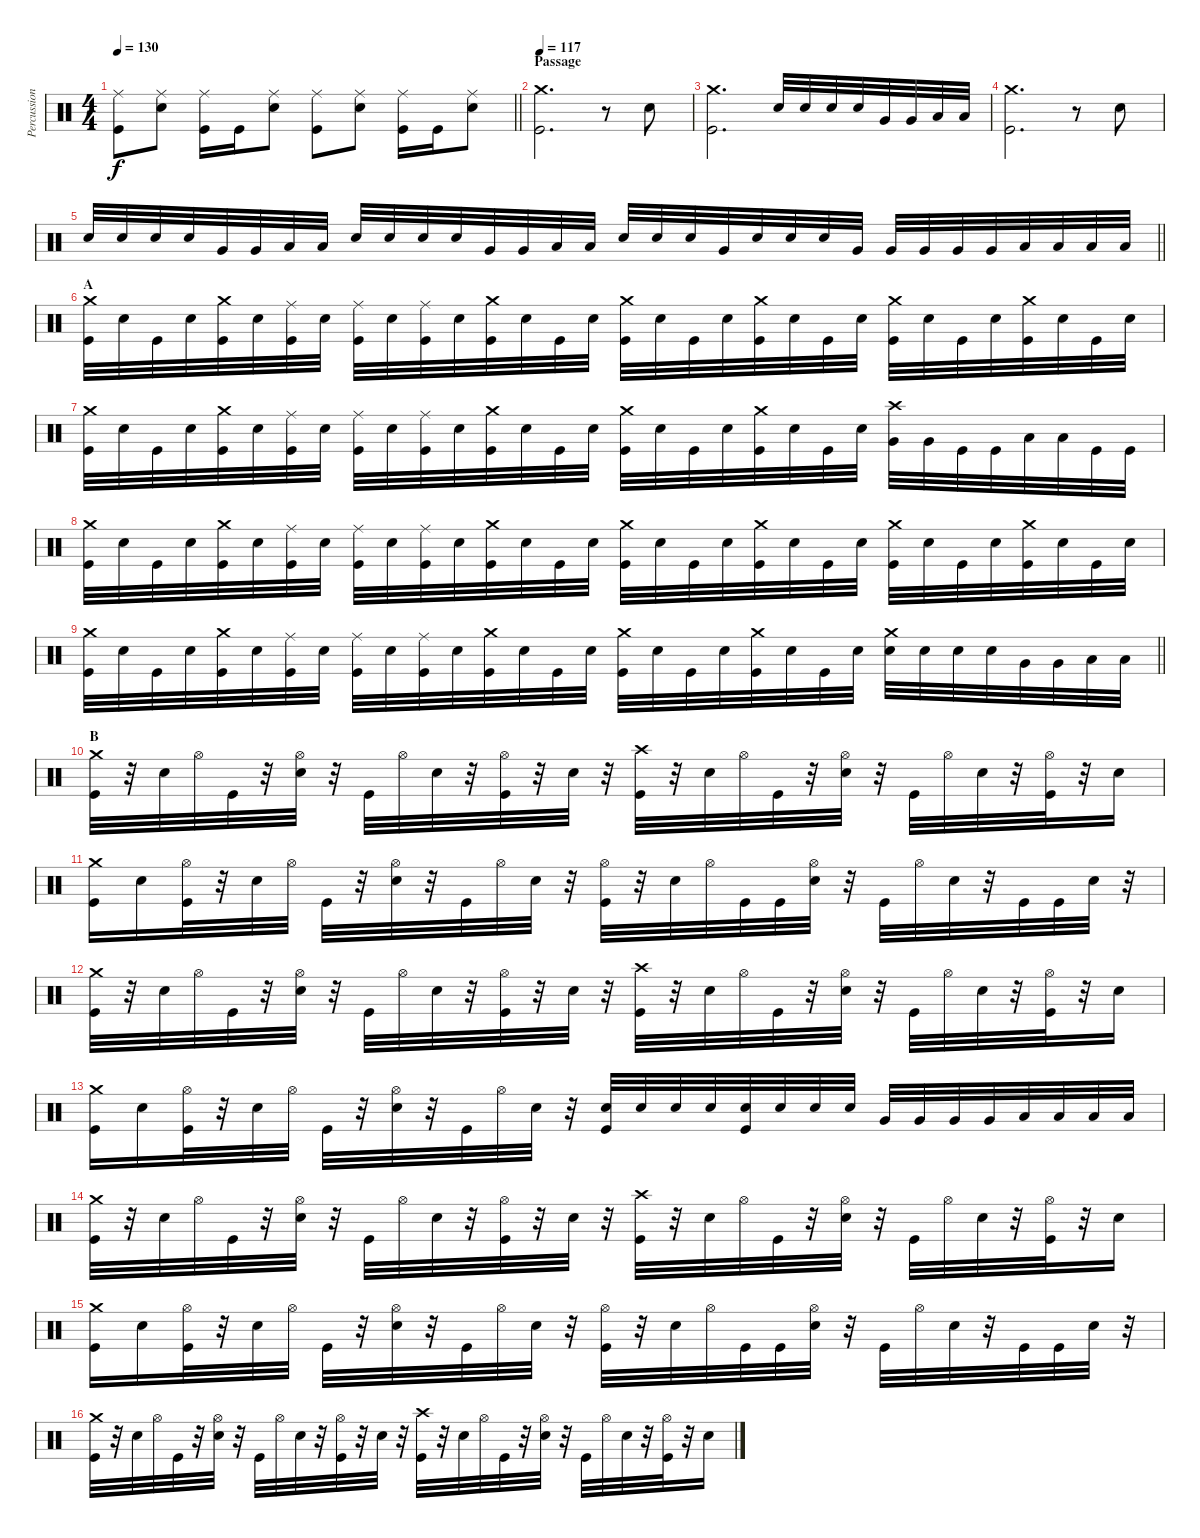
\track ("Percussion" "Percussion") {instrument percussion}
\staff {score}
\articulation defaults
\ts (4 4)
\tempo 130
\clef neutral
\barLineRight lightlight
\ks c
("Kick (hit)" "Ride (middle)").8{dy f} ("Snare (hit) 2" "Ride (middle)").8 ("Kick (hit)" "Ride (middle)").16 "Kick (hit)".16 ("Snare (hit) 2" "Ride (middle)").8 ("Kick (hit)" "Ride (middle)").8 ("Snare (hit) 2" "Ride (middle)").8 ("Kick (hit)" "Ride (middle)").16 "Kick (hit)".16 ("Snare (hit) 2" "Ride (middle)").8 |
\section ("" "Passage")
\tempo 117
("Kick (hit)" "Crash medium (hit)").2{d} r.8 "Snare (hit) 2".8 |
("Kick (hit)" "Crash medium (hit)").2{d} "Snare (hit) 2".32 "Snare (hit) 2".32 "Snare (hit) 2".32 "Snare (hit) 2".32 "Very Low Tom (hit)".32 "Very Low Tom (hit)".32 "Low Floor Tom (hit)".32 "Low Floor Tom (hit)".32 |
("Kick (hit)" "Crash medium (hit)").2{d} r.8 "Snare (hit) 2".8 |
\barLineRight lightlight "Snare (hit) 2".32 "Snare (hit) 2".32 "Snare (hit) 2".32 "Snare (hit) 2".32 "Very Low Tom (hit)".32 "Very Low Tom (hit)".32 "Low Floor Tom (hit)".32 "Low Floor Tom (hit)".32 "Snare (hit) 2".32 "Snare (hit) 2".32 "Snare (hit) 2".32 "Snare (hit) 2".32 "Very Low Tom (hit)".32 "Very Low Tom (hit)".32 "Low Floor Tom (hit)".32 "Low Floor Tom (hit)".32 "Snare (hit) 2".32 "Snare (hit) 2".32 "Snare (hit) 2".32 "Very Low Tom (hit)".32 "Snare (hit) 2".32 "Snare (hit) 2".32 "Snare (hit) 2".32 "Very Low Tom (hit)".32 "Very Low Tom (hit)".32 "Very Low Tom (hit)".32 "Very Low Tom (hit)".32 "Very Low Tom (hit)".32 "Low Floor Tom (hit)".32 "Low Floor Tom (hit)".32 "Low Floor Tom (hit)".32 "Low Floor Tom (hit)".32
|
\section ("" "A")
("Kick (hit)" "Crash medium (hit)").32 "Snare (hit) 2".32 "Kick (hit)".32 "Snare (hit) 2".32 ("Kick (hit)" "Crash medium (hit)").32 "Snare (hit) 2".32 ("Kick (hit)" "Ride (middle)").32 "Snare (hit) 2".32 ("Kick (hit)" "Ride (middle)").32 "Snare (hit) 2".32 ("Kick (hit)" "Ride (middle)").32 "Snare (hit) 2".32 ("Kick (hit)" "Crash medium (hit)").32 "Snare (hit) 2".32 "Kick (hit)".32 "Snare (hit) 2".32 ("Kick (hit)" "Crash medium (hit)").32 "Snare (hit) 2".32 "Kick (hit)".32 "Snare (hit) 2".32 ("Kick (hit)" "Crash medium (hit)").32 "Snare (hit) 2".32 "Kick (hit)".32 "Snare (hit) 2".32 ("Kick (hit)" "Crash medium (hit)").32 "Snare (hit) 2".32 "Kick (hit)".32 "Snare (hit) 2".32 ("Kick (hit)" "Crash medium (hit)").32 "Snare (hit) 2".32 "Kick (hit)".32 "Snare (hit) 2".32 |
("Kick (hit)" "Crash medium (hit)").32 "Snare (hit) 2".32 "Kick (hit)".32 "Snare (hit) 2".32 ("Kick (hit)" "Crash medium (hit)").32 "Snare (hit) 2".32 ("Kick (hit)" "Ride (middle)").32 "Snare (hit) 2".32 ("Kick (hit)" "Ride (middle)").32 "Snare (hit) 2".32 ("Kick (hit)" "Ride (middle)").32 "Snare (hit) 2".32 ("Kick (hit)" "Crash medium (hit)").32 "Snare (hit) 2".32 "Kick (hit)".32 "Snare (hit) 2".32 ("Kick (hit)" "Crash medium (hit)").32 "Snare (hit) 2".32 "Kick (hit)".32 "Snare (hit) 2".32 ("Kick (hit)" "Crash medium (hit)").32 "Snare (hit) 2".32 "Kick (hit)".32 "Snare (hit) 2".32 ("Very Low Tom (hit)" "Crash high (hit)").32 "Very Low Tom (hit)".32 "Kick (hit)".32 "Kick (hit)".32 "Low Floor Tom (hit)".32 "Low Floor Tom (hit)".32 "Kick (hit)".32 "Kick (hit)".32 |
("Kick (hit)" "Crash medium (hit)").32 "Snare (hit) 2".32 "Kick (hit)".32 "Snare (hit) 2".32 ("Kick (hit)" "Crash medium (hit)").32 "Snare (hit) 2".32 ("Kick (hit)" "Ride (middle)").32 "Snare (hit) 2".32 ("Kick (hit)" "Ride (middle)").32 "Snare (hit) 2".32 ("Kick (hit)" "Ride (middle)").32 "Snare (hit) 2".32 ("Kick (hit)" "Crash medium (hit)").32 "Snare (hit) 2".32 "Kick (hit)".32 "Snare (hit) 2".32 ("Kick (hit)" "Crash medium (hit)").32 "Snare (hit) 2".32 "Kick (hit)".32 "Snare (hit) 2".32 ("Kick (hit)" "Crash medium (hit)").32 "Snare (hit) 2".32 "Kick (hit)".32 "Snare (hit) 2".32 ("Kick (hit)" "Crash medium (hit)").32 "Snare (hit) 2".32 "Kick (hit)".32 "Snare (hit) 2".32 ("Kick (hit)" "Crash medium (hit)").32 "Snare (hit) 2".32 "Kick (hit)".32 "Snare (hit) 2".32 |
\barLineRight lightlight
("Kick (hit)" "Crash medium (hit)").32 "Snare (hit) 2".32 "Kick (hit)".32 "Snare (hit) 2".32 ("Kick (hit)" "Crash medium (hit)").32 "Snare (hit) 2".32 ("Kick (hit)" "Ride (middle)").32 "Snare (hit) 2".32 ("Kick (hit)" "Ride (middle)").32 "Snare (hit) 2".32 ("Kick (hit)" "Ride (middle)").32 "Snare (hit) 2".32 ("Kick (hit)" "Crash medium (hit)").32 "Snare (hit) 2".32 "Kick (hit)".32 "Snare (hit) 2".32 ("Kick (hit)" "Crash medium (hit)").32 "Snare (hit) 2".32 "Kick (hit)".32 "Snare (hit) 2".32 ("Kick (hit)" "Crash medium (hit)").32 "Snare (hit) 2".32 "Kick (hit)".32 "Snare (hit) 2".32 ("Snare (hit) 2" "Crash medium (hit)").32 "Snare (hit) 2".32 "Snare (hit) 2".32 "Snare (hit) 2".32 "Very Low Tom (hit)".32 "Very Low Tom (hit)".32 "Low Floor Tom (hit)".32 "Low Floor Tom (hit)".32 |
\section ("" "B")
("Kick (hit)" "Crash medium (hit)").32 r.32 "Snare (hit) 2".32 "Hi-Hat (open)".32 "Kick (hit)".32 r.32 ("Snare (hit) 2" "Hi-Hat (open)").32 r.32 "Kick (hit)".32 "Hi-Hat (open)".32 "Snare (hit) 2".32 r.32 ("Kick (hit)" "Hi-Hat (open)").32 r.32 "Snare (hit) 2".32 r.32 ("Kick (hit)" "Crash high (hit)").32 r.32 "Snare (hit) 2".32 "Hi-Hat (open)".32 "Kick (hit)".32 r.32 ("Snare (hit) 2" "Hi-Hat (open)").32 r.32 "Kick (hit)".32 "Hi-Hat (open)".32 "Snare (hit) 2".32 r.32 ("Kick (hit)" "Hi-Hat (open)").32 r.32 "Snare (hit) 2".16 |
("Kick (hit)" "Crash medium (hit)").16 "Snare (hit) 2".16 ("Kick (hit)" "Hi-Hat (open)").32 r.32 "Snare (hit) 2".32 "Hi-Hat (open)".32 "Kick (hit)".32 r.32 ("Snare (hit) 2" "Hi-Hat (open)").32 r.32 "Kick (hit)".32 "Hi-Hat (open)".32 "Snare (hit) 2".32 r.32 ("Kick (hit)" "Hi-Hat (open)").32 r.32 "Snare (hit) 2".32 "Hi-Hat (open)".32 "Kick (hit)".32 "Kick (hit)".32 ("Snare (hit) 2" "Hi-Hat (open)").32 r.32 "Kick (hit)".32 "Hi-Hat (open)".32 "Snare (hit) 2".32 r.32 "Kick (hit)".32 "Kick (hit)".32 "Snare (hit) 2".32 r.32 |
("Kick (hit)" "Crash medium (hit)").32 r.32 "Snare (hit) 2".32 "Hi-Hat (open)".32 "Kick (hit)".32 r.32 ("Snare (hit) 2" "Hi-Hat (open)").32 r.32 "Kick (hit)".32 "Hi-Hat (open)".32 "Snare (hit) 2".32 r.32 ("Kick (hit)" "Hi-Hat (open)").32 r.32 "Snare (hit) 2".32 r.32 ("Kick (hit)" "Crash high (hit)").32 r.32 "Snare (hit) 2".32 "Hi-Hat (open)".32 "Kick (hit)".32 r.32 ("Snare (hit) 2" "Hi-Hat (open)").32 r.32 "Kick (hit)".32 "Hi-Hat (open)".32 "Snare (hit) 2".32 r.32 ("Kick (hit)" "Hi-Hat (open)").32 r.32 "Snare (hit) 2".16 |
("Kick (hit)" "Crash medium (hit)").16 "Snare (hit) 2".16 ("Kick (hit)" "Hi-Hat (open)").32 r.32 "Snare (hit) 2".32 "Hi-Hat (open)".32 "Kick (hit)".32 r.32 ("Snare (hit) 2" "Hi-Hat (open)").32 r.32 "Kick (hit)".32 "Hi-Hat (open)".32 "Snare (hit) 2".32 r.32 ("Kick (hit)" "Snare (hit) 2").32 "Snare (hit) 2".32 "Snare (hit) 2".32 "Snare (hit) 2".32 ("Kick (hit)" "Snare (hit) 2").32 "Snare (hit) 2".32 "Snare (hit) 2".32 "Snare (hit) 2".32 "Very Low Tom (hit)".32 "Very Low Tom (hit)".32 "Very Low Tom (hit)".32 "Very Low Tom (hit)".32 "Low Floor Tom (hit)".32 "Low Floor Tom (hit)".32 "Low Floor Tom (hit)".32 "Low Floor Tom (hit)".32 |
("Kick (hit)" "Crash medium (hit)").32 r.32 "Snare (hit) 2".32 "Hi-Hat (open)".32 "Kick (hit)".32 r.32 ("Snare (hit) 2" "Hi-Hat (open)").32 r.32 "Kick (hit)".32 "Hi-Hat (open)".32 "Snare (hit) 2".32 r.32 ("Kick (hit)" "Hi-Hat (open)").32 r.32 "Snare (hit) 2".32 r.32 ("Kick (hit)" "Crash high (hit)").32 r.32 "Snare (hit) 2".32 "Hi-Hat (open)".32 "Kick (hit)".32 r.32 ("Snare (hit) 2" "Hi-Hat (open)").32 r.32 "Kick (hit)".32 "Hi-Hat (open)".32 "Snare (hit) 2".32 r.32 ("Kick (hit)" "Hi-Hat (open)").32 r.32 "Snare (hit) 2".16 |
("Kick (hit)" "Crash medium (hit)").16 "Snare (hit) 2".16 ("Kick (hit)" "Hi-Hat (open)").32 r.32 "Snare (hit) 2".32 "Hi-Hat (open)".32 "Kick (hit)".32 r.32 ("Snare (hit) 2" "Hi-Hat (open)").32 r.32 "Kick (hit)".32 "Hi-Hat (open)".32 "Snare (hit) 2".32 r.32 ("Kick (hit)" "Hi-Hat (open)").32 r.32 "Snare (hit) 2".32 "Hi-Hat (open)".32 "Kick (hit)".32 "Kick (hit)".32 ("Snare (hit) 2" "Hi-Hat (open)").32 r.32 "Kick (hit)".32 "Hi-Hat (open)".32 "Snare (hit) 2".32 r.32 "Kick (hit)".32 "Kick (hit)".32 "Snare (hit) 2".32 r.32 |
("Kick (hit)" "Crash medium (hit)").32 r.32 "Snare (hit) 2".32 "Hi-Hat (open)".32 "Kick (hit)".32 r.32 ("Snare (hit) 2" "Hi-Hat (open)").32 r.32 "Kick (hit)".32 "Hi-Hat (open)".32 "Snare (hit) 2".32 r.32 ("Kick (hit)" "Hi-Hat (open)").32 r.32 "Snare (hit) 2".32 r.32 ("Kick (hit)" "Crash high (hit)").32 r.32 "Snare (hit) 2".32 "Hi-Hat (open)".32 "Kick (hit)".32 r.32 ("Snare (hit) 2" "Hi-Hat (open)").32 r.32 "Kick (hit)".32 "Hi-Hat (open)".32 "Snare (hit) 2".32 r.32 ("Kick (hit)" "Hi-Hat (open)").32 r.32 "Snare (hit) 2".16
